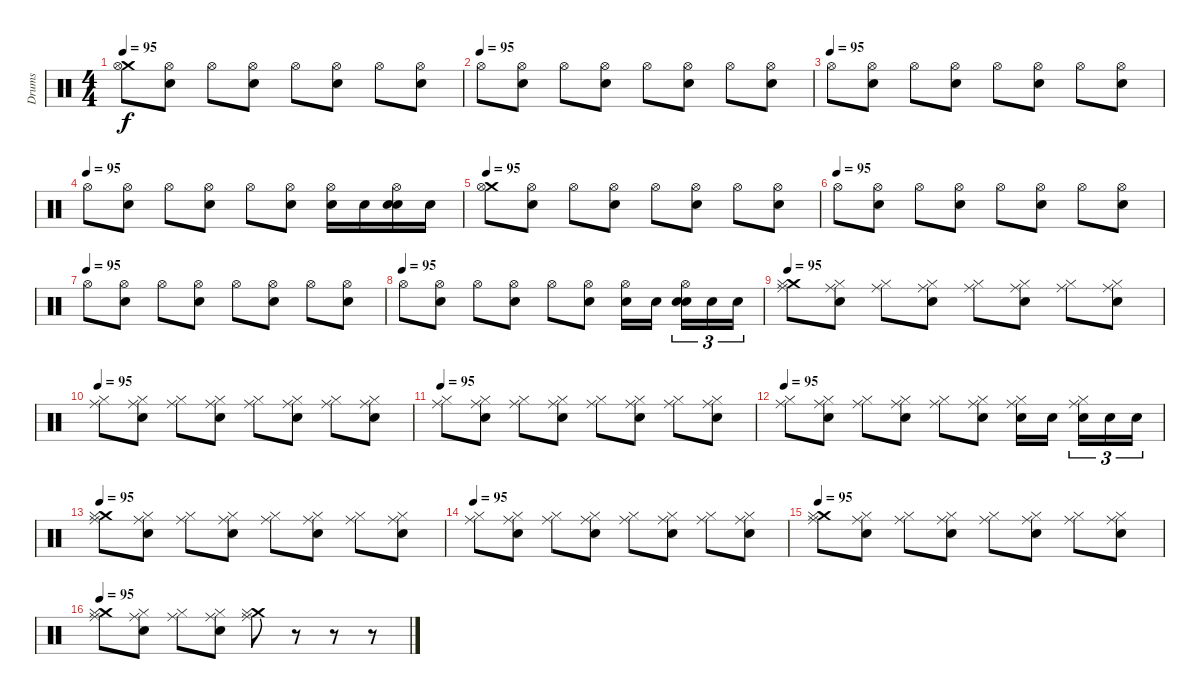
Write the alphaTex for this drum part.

\track ("Drums" "Drums") {instrument percussion}
\staff {score}
\articulation defaults
\ts (4 4)
\tempo 95
\clef neutral
\ks c
("Crash medium (hit)" "Hi-Hat (open)").8{dy f} ("Hi-Hat (open)" "Snare (hit) 2").8 "Hi-Hat (open)".8 ("Hi-Hat (open)" "Snare (hit) 2").8 "Hi-Hat (open)".8 ("Hi-Hat (open)" "Snare (hit) 2").8 "Hi-Hat (open)".8 ("Hi-Hat (open)" "Snare (hit) 2").8 |
\tempo (95)
"Hi-Hat (open)".8 ("Hi-Hat (open)" "Snare (hit) 2").8 "Hi-Hat (open)".8 ("Hi-Hat (open)" "Snare (hit) 2").8 "Hi-Hat (open)".8 ("Hi-Hat (open)" "Snare (hit) 2").8 "Hi-Hat (open)".8 ("Hi-Hat (open)" "Snare (hit) 2").8 |
\tempo (95)
"Hi-Hat (open)".8 ("Hi-Hat (open)" "Snare (hit) 2").8 "Hi-Hat (open)".8 ("Hi-Hat (open)" "Snare (hit) 2").8 "Hi-Hat (open)".8 ("Hi-Hat (open)" "Snare (hit) 2").8 "Hi-Hat (open)".8 ("Hi-Hat (open)" "Snare (hit) 2").8 |
\tempo (95)
"Hi-Hat (open)".8 ("Hi-Hat (open)" "Snare (hit) 2").8 "Hi-Hat (open)".8 ("Hi-Hat (open)" "Snare (hit) 2").8 "Hi-Hat (open)".8 ("Hi-Hat (open)" "Snare (hit) 2").8 ("Hi-Hat (open)" "Electric Snare (hit)").16 "Electric Snare (hit)".16 ("Hi-Hat (open)" "Snare (hit) 2" "Electric Snare (hit)").16 "Electric Snare (hit)".16 |
\tempo 95
("Crash medium (hit)" "Hi-Hat (open)").8 ("Hi-Hat (open)" "Snare (hit) 2").8 "Hi-Hat (open)".8 ("Hi-Hat (open)" "Snare (hit) 2").8 "Hi-Hat (open)".8 ("Hi-Hat (open)" "Snare (hit) 2").8 "Hi-Hat (open)".8 ("Hi-Hat (open)" "Snare (hit) 2").8 |
\tempo (95)
"Hi-Hat (open)".8 ("Hi-Hat (open)" "Snare (hit) 2").8 "Hi-Hat (open)".8 ("Hi-Hat (open)" "Snare (hit) 2").8 "Hi-Hat (open)".8 ("Hi-Hat (open)" "Snare (hit) 2").8 "Hi-Hat (open)".8 ("Hi-Hat (open)" "Snare (hit) 2").8 |
\tempo (95)
"Hi-Hat (open)".8 ("Hi-Hat (open)" "Snare (hit) 2").8 "Hi-Hat (open)".8 ("Hi-Hat (open)" "Snare (hit) 2").8 "Hi-Hat (open)".8 ("Hi-Hat (open)" "Snare (hit) 2").8 "Hi-Hat (open)".8 ("Hi-Hat (open)" "Snare (hit) 2").8 |
\tempo (95)
"Hi-Hat (open)".8 ("Hi-Hat (open)" "Snare (hit) 2").8 "Hi-Hat (open)".8 ("Hi-Hat (open)" "Snare (hit) 2").8 "Hi-Hat (open)".8 ("Hi-Hat (open)" "Snare (hit) 2").8 ("Hi-Hat (open)" "Electric Snare (hit)").16 "Electric Snare (hit)".16 ("Hi-Hat (open)" "Snare (hit) 2" "Electric Snare (hit)").16{tu (3 2)} "Electric Snare (hit)".16{tu (3 2)} "Electric Snare (hit)".16{tu (3 2)} |
\tempo 95
("Crash medium (hit)" "Ride (middle)" "Hi-Hat (closed)").8 ("Ride (middle)" "Snare (hit) 2" "Hi-Hat (closed)").8 ("Ride (middle)" "Hi-Hat (closed)").8 ("Ride (middle)" "Snare (hit) 2" "Hi-Hat (closed)").8 ("Ride (middle)" "Hi-Hat (closed)").8 ("Ride (middle)" "Snare (hit) 2" "Hi-Hat (closed)").8 ("Ride (middle)" "Hi-Hat (closed)").8 ("Ride (middle)" "Snare (hit) 2" "Hi-Hat (closed)").8 |
\tempo 95
("Ride (middle)" "Hi-Hat (closed)").8 ("Ride (middle)" "Snare (hit) 2" "Hi-Hat (closed)").8 ("Ride (middle)" "Hi-Hat (closed)").8 ("Ride (middle)" "Snare (hit) 2" "Hi-Hat (closed)").8 ("Ride (middle)" "Hi-Hat (closed)").8 ("Ride (middle)" "Snare (hit) 2" "Hi-Hat (closed)").8 ("Ride (middle)" "Hi-Hat (closed)").8 ("Ride (middle)" "Snare (hit) 2" "Hi-Hat (closed)").8 |
\tempo 95
("Ride (middle)" "Hi-Hat (closed)").8 ("Ride (middle)" "Snare (hit) 2" "Hi-Hat (closed)").8 ("Ride (middle)" "Hi-Hat (closed)").8 ("Ride (middle)" "Snare (hit) 2" "Hi-Hat (closed)").8 ("Ride (middle)" "Hi-Hat (closed)").8 ("Ride (middle)" "Snare (hit) 2" "Hi-Hat (closed)").8 ("Ride (middle)" "Hi-Hat (closed)").8 ("Ride (middle)" "Snare (hit) 2" "Hi-Hat (closed)").8 |
\tempo 95
("Ride (middle)" "Hi-Hat (closed)").8 ("Ride (middle)" "Snare (hit) 2" "Hi-Hat (closed)").8 ("Ride (middle)" "Hi-Hat (closed)").8 ("Ride (middle)" "Snare (hit) 2" "Hi-Hat (closed)").8 ("Ride (middle)" "Hi-Hat (closed)").8 ("Ride (middle)" "Snare (hit) 2" "Hi-Hat (closed)").8 ("Ride (middle)" "Snare (hit) 2" "Hi-Hat (closed)").16 "Snare (hit) 2".16 ("Ride (middle)" "Snare (hit) 2" "Hi-Hat (closed)").16{tu (3 2)} "Snare (hit) 2".16{tu (3 2)} "Snare (hit) 2".16{tu (3 2)} |
\tempo 95
("Crash medium (hit)" "Ride (middle)" "Hi-Hat (closed)").8 ("Ride (middle)" "Snare (hit) 2" "Hi-Hat (closed)").8 ("Ride (middle)" "Hi-Hat (closed)").8 ("Ride (middle)" "Snare (hit) 2" "Hi-Hat (closed)").8 ("Ride (middle)" "Hi-Hat (closed)").8 ("Ride (middle)" "Snare (hit) 2" "Hi-Hat (closed)").8 ("Ride (middle)" "Hi-Hat (closed)").8 ("Ride (middle)" "Snare (hit) 2" "Hi-Hat (closed)").8 |
\tempo 95
("Ride (middle)" "Hi-Hat (closed)").8 ("Ride (middle)" "Snare (hit) 2" "Hi-Hat (closed)").8 ("Ride (middle)" "Hi-Hat (closed)").8 ("Ride (middle)" "Snare (hit) 2" "Hi-Hat (closed)").8 ("Ride (middle)" "Hi-Hat (closed)").8 ("Ride (middle)" "Snare (hit) 2" "Hi-Hat (closed)").8 ("Ride (middle)" "Hi-Hat (closed)").8 ("Ride (middle)" "Snare (hit) 2" "Hi-Hat (closed)").8 |
\tempo 95
("Crash medium (hit)" "Ride (middle)" "Hi-Hat (closed)").8 ("Ride (middle)" "Snare (hit) 2" "Hi-Hat (closed)").8 ("Ride (middle)" "Hi-Hat (closed)").8 ("Ride (middle)" "Snare (hit) 2" "Hi-Hat (closed)").8 ("Ride (middle)" "Hi-Hat (closed)").8 ("Ride (middle)" "Snare (hit) 2" "Hi-Hat (closed)").8 ("Ride (middle)" "Hi-Hat (closed)").8 ("Ride (middle)" "Snare (hit) 2" "Hi-Hat (closed)").8 |
\tempo 95
("Crash medium (hit)" "Ride (middle)" "Hi-Hat (closed)").8 ("Ride (middle)" "Snare (hit) 2" "Hi-Hat (closed)").8 ("Ride (middle)" "Hi-Hat (closed)").8 ("Ride (middle)" "Snare (hit) 2" "Hi-Hat (closed)").8 ("Crash medium (hit)" "Ride (middle)" "Hi-Hat (closed)").8 r.8 r.8 r.8
